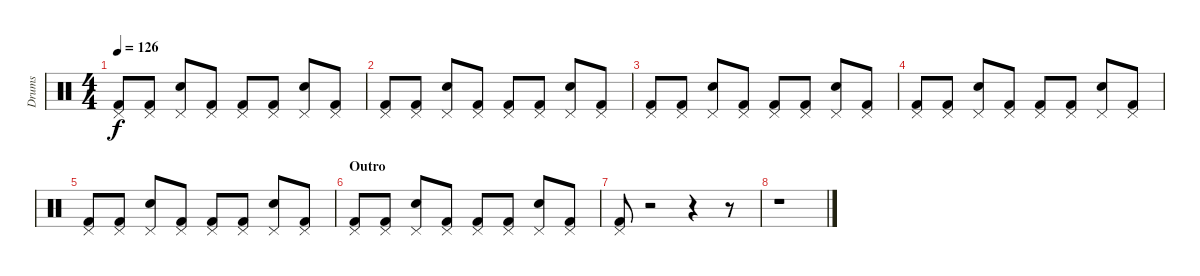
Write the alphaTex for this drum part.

\track ("Drums" "Drums") {instrument percussion}
\staff {score}
\articulation defaults
\ts (4 4)
\tempo 126
\clef neutral
\ks c
("Kick (hit) 2" "Pedal Hi-Hat (hit)").8{dy f} ("Kick (hit) 2" "Pedal Hi-Hat (hit)").8 ("Snare (hit) 2" "Pedal Hi-Hat (hit)").8 ("Kick (hit) 2" "Pedal Hi-Hat (hit)").8 ("Kick (hit) 2" "Pedal Hi-Hat (hit)").8 ("Kick (hit) 2" "Pedal Hi-Hat (hit)").8 ("Snare (hit) 2" "Pedal Hi-Hat (hit)").8 ("Kick (hit) 2" "Pedal Hi-Hat (hit)").8 |
("Kick (hit) 2" "Pedal Hi-Hat (hit)").8 ("Kick (hit) 2" "Pedal Hi-Hat (hit)").8 ("Snare (hit) 2" "Pedal Hi-Hat (hit)").8 ("Kick (hit) 2" "Pedal Hi-Hat (hit)").8 ("Kick (hit) 2" "Pedal Hi-Hat (hit)").8 ("Kick (hit) 2" "Pedal Hi-Hat (hit)").8 ("Snare (hit) 2" "Pedal Hi-Hat (hit)").8 ("Kick (hit) 2" "Pedal Hi-Hat (hit)").8 |
("Kick (hit) 2" "Pedal Hi-Hat (hit)").8 ("Kick (hit) 2" "Pedal Hi-Hat (hit)").8 ("Snare (hit) 2" "Pedal Hi-Hat (hit)").8 ("Kick (hit) 2" "Pedal Hi-Hat (hit)").8 ("Kick (hit) 2" "Pedal Hi-Hat (hit)").8 ("Kick (hit) 2" "Pedal Hi-Hat (hit)").8 ("Snare (hit) 2" "Pedal Hi-Hat (hit)").8 ("Kick (hit) 2" "Pedal Hi-Hat (hit)").8 |
("Kick (hit) 2" "Pedal Hi-Hat (hit)").8 ("Kick (hit) 2" "Pedal Hi-Hat (hit)").8 ("Snare (hit) 2" "Pedal Hi-Hat (hit)").8 ("Kick (hit) 2" "Pedal Hi-Hat (hit)").8 ("Kick (hit) 2" "Pedal Hi-Hat (hit)").8 ("Kick (hit) 2" "Pedal Hi-Hat (hit)").8 ("Snare (hit) 2" "Pedal Hi-Hat (hit)").8 ("Kick (hit) 2" "Pedal Hi-Hat (hit)").8 |
("Kick (hit) 2" "Pedal Hi-Hat (hit)").8 ("Kick (hit) 2" "Pedal Hi-Hat (hit)").8 ("Snare (hit) 2" "Pedal Hi-Hat (hit)").8 ("Kick (hit) 2" "Pedal Hi-Hat (hit)").8 ("Kick (hit) 2" "Pedal Hi-Hat (hit)").8 ("Kick (hit) 2" "Pedal Hi-Hat (hit)").8 ("Snare (hit) 2" "Pedal Hi-Hat (hit)").8 ("Kick (hit) 2" "Pedal Hi-Hat (hit)").8 |
\section ("" "Outro")
("Kick (hit) 2" "Pedal Hi-Hat (hit)").8 ("Kick (hit) 2" "Pedal Hi-Hat (hit)").8 ("Snare (hit) 2" "Pedal Hi-Hat (hit)").8 ("Kick (hit) 2" "Pedal Hi-Hat (hit)").8 ("Kick (hit) 2" "Pedal Hi-Hat (hit)").8 ("Kick (hit) 2" "Pedal Hi-Hat (hit)").8 ("Snare (hit) 2" "Pedal Hi-Hat (hit)").8 ("Kick (hit) 2" "Pedal Hi-Hat (hit)").8 |
("Kick (hit) 2" "Pedal Hi-Hat (hit)").8 r.2 r.4 r.8 |
r.1
